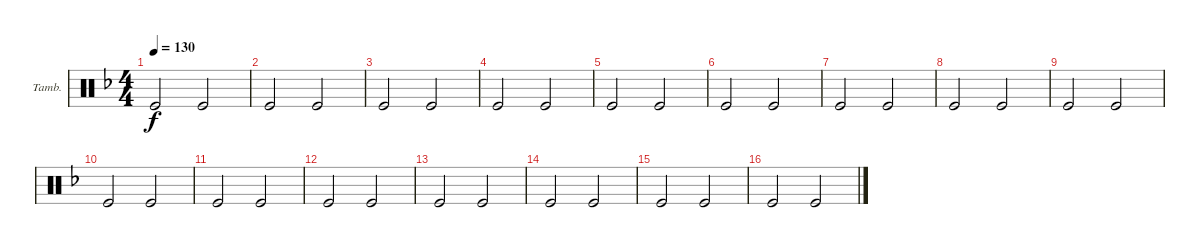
\defaultSystemsLayout 4
\bracketExtendMode groupsimilarinstruments
\firstSystemTrackNameOrientation horizontal
\otherSystemsTrackNameOrientation horizontal
\track ("Tambourine" "Tamb.") {instrument percussion}
\staff {score}
\articulation defaults
\ts (4 4)
\tempo 130
\clef neutral
\ks dminor "Kick (hit)".2{dy f} "Kick (hit)".2
|
"Kick (hit)".2 "Kick (hit)".2 |
"Kick (hit)".2 "Kick (hit)".2 |
"Kick (hit)".2 "Kick (hit)".2 |
"Kick (hit)".2 "Kick (hit)".2 |
"Kick (hit)".2 "Kick (hit)".2 |
"Kick (hit)".2 "Kick (hit)".2 |
"Kick (hit)".2 "Kick (hit)".2 |
"Kick (hit)".2 "Kick (hit)".2 |
"Kick (hit)".2 "Kick (hit)".2 |
"Kick (hit)".2 "Kick (hit)".2 |
"Kick (hit)".2 "Kick (hit)".2 |
"Kick (hit)".2 "Kick (hit)".2 |
"Kick (hit)".2 "Kick (hit)".2 |
"Kick (hit)".2 "Kick (hit)".2 |
"Kick (hit)".2 "Kick (hit)".2
